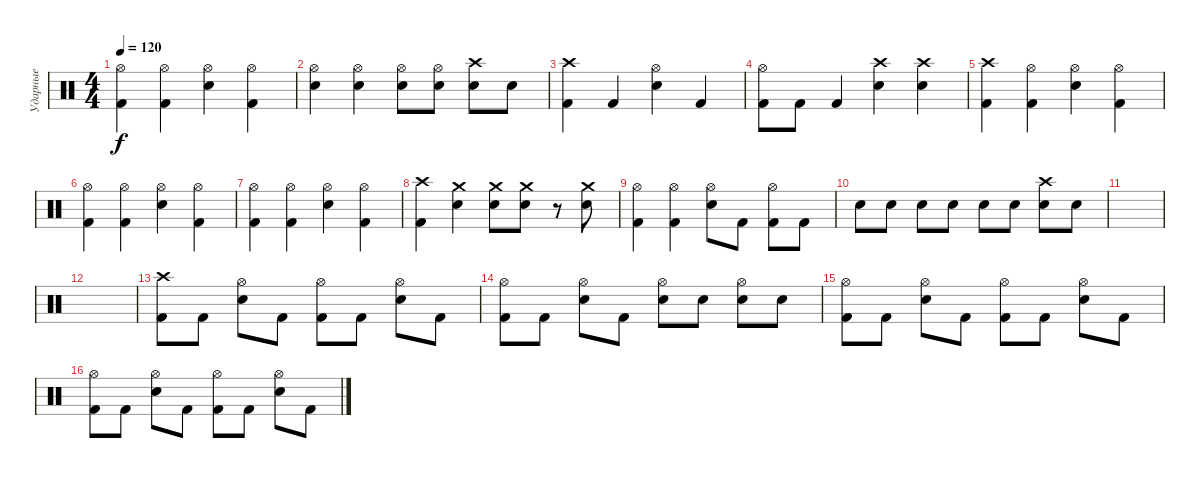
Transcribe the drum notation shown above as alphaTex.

\track ("Ударные" "Ударные") {instrument percussion}
\staff {score}
\articulation defaults
\ts (4 4)
\tempo 120
\clef neutral
\ks c
("Hi-Hat (open)" "Kick (hit) 2").4{dy f} ("Hi-Hat (open)" "Kick (hit) 2").4 ("Hi-Hat (open)" "Snare (hit) 2").4 ("Hi-Hat (open)" "Kick (hit) 2").4 |
("Hi-Hat (open)" "Snare (hit) 2").4 ("Hi-Hat (open)" "Snare (hit) 2").4 ("Hi-Hat (open)" "Snare (hit) 2").8 ("Hi-Hat (open)" "Snare (hit) 2").8 ("Crash high (hit)" "Snare (hit) 2").8 "Snare (hit) 2".8 |
("Crash high (hit)" "Kick (hit) 2").4 "Kick (hit) 2".4 ("Hi-Hat (open)" "Snare (hit) 2").4 "Kick (hit) 2".4 |
("Hi-Hat (open)" "Kick (hit) 2").8 "Kick (hit) 2".8 "Kick (hit) 2".4 ("Crash high (hit)" "Snare (hit) 2").4 ("Crash high (hit)" "Snare (hit) 2").4 |
("Crash high (hit)" "Kick (hit) 2").4 ("Hi-Hat (open)" "Kick (hit) 2").4 ("Hi-Hat (open)" "Snare (hit) 2").4 ("Hi-Hat (open)" "Kick (hit) 2").4 |
("Hi-Hat (open)" "Kick (hit) 2").4 ("Hi-Hat (open)" "Kick (hit) 2").4 ("Hi-Hat (open)" "Snare (hit) 2").4 ("Hi-Hat (open)" "Kick (hit) 2").4 |
("Hi-Hat (open)" "Kick (hit) 2").4 ("Hi-Hat (open)" "Kick (hit) 2").4 ("Hi-Hat (open)" "Snare (hit) 2").4 ("Hi-Hat (open)" "Kick (hit) 2").4 |
("Crash high (hit)" "Kick (hit) 2").4 ("Crash medium (hit)" "Snare (hit) 2").4 ("Crash medium (hit)" "Snare (hit) 2").8 ("Crash medium (hit)" "Snare (hit) 2").8 r.8 ("Crash medium (hit)" "Snare (hit) 2").8 |
("Hi-Hat (open)" "Kick (hit) 2").4 ("Hi-Hat (open)" "Kick (hit) 2").4 ("Hi-Hat (open)" "Snare (hit) 2").8 "Kick (hit) 2".8 ("Hi-Hat (open)" "Kick (hit) 2").8 "Kick (hit) 2".8 |
"Snare (hit) 2".8 "Snare (hit) 2".8 "Snare (hit) 2".8 "Snare (hit) 2".8 "Snare (hit) 2".8 "Snare (hit) 2".8 ("Crash high (hit)" "Snare (hit) 2").8 "Snare (hit) 2".8 |
|
|
("Crash high (hit)" "Kick (hit) 2").8 "Kick (hit) 2".8 ("Hi-Hat (open)" "Snare (hit) 2").8 "Kick (hit) 2".8 ("Hi-Hat (open)" "Kick (hit) 2").8 "Kick (hit) 2".8 ("Hi-Hat (open)" "Snare (hit) 2").8 "Kick (hit) 2".8 |
("Hi-Hat (open)" "Kick (hit) 2").8 "Kick (hit) 2".8 ("Hi-Hat (open)" "Snare (hit) 2").8 "Kick (hit) 2".8 ("Hi-Hat (open)" "Snare (hit) 2").8 "Snare (hit) 2".8 ("Hi-Hat (open)" "Snare (hit) 2").8 "Snare (hit) 2".8 |
("Hi-Hat (open)" "Kick (hit) 2").8 "Kick (hit) 2".8 ("Hi-Hat (open)" "Snare (hit) 2").8 "Kick (hit) 2".8 ("Hi-Hat (open)" "Kick (hit) 2").8 "Kick (hit) 2".8 ("Hi-Hat (open)" "Snare (hit) 2").8 "Kick (hit) 2".8 |
("Hi-Hat (open)" "Kick (hit) 2").8 "Kick (hit) 2".8 ("Hi-Hat (open)" "Snare (hit) 2").8 "Kick (hit) 2".8 ("Hi-Hat (open)" "Kick (hit) 2").8 "Kick (hit) 2".8 ("Hi-Hat (open)" "Snare (hit) 2").8 "Kick (hit) 2".8
